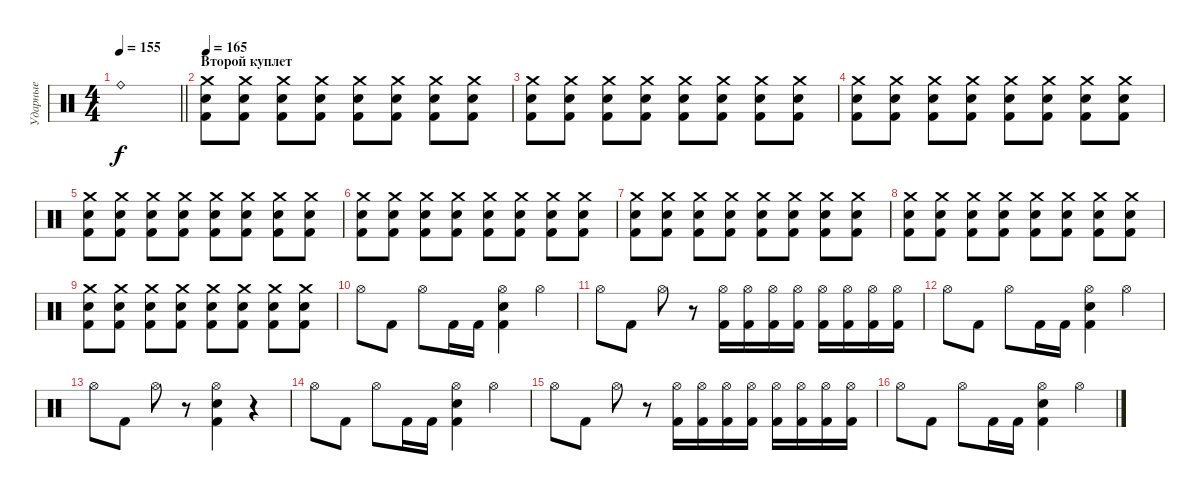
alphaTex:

\track ("Ударные" "Ударные") {instrument percussion}
\staff {score}
\articulation defaults
\ts (4 4)
\tempo 155
\clef neutral
\barLineRight lightlight
\ks c "Ride (bell)".1{dy f}
|
\section ("" "Второй куплет")
\tempo 165
("Crash medium (hit)" "Snare (hit) 2" "Kick (hit) 2").8 ("Crash medium (hit)" "Snare (hit) 2" "Kick (hit) 2").8 ("Crash medium (hit)" "Snare (hit) 2" "Kick (hit) 2").8 ("Crash medium (hit)" "Snare (hit) 2" "Kick (hit) 2").8 ("Crash medium (hit)" "Snare (hit) 2" "Kick (hit) 2").8 ("Crash medium (hit)" "Snare (hit) 2" "Kick (hit) 2").8 ("Crash medium (hit)" "Snare (hit) 2" "Kick (hit) 2").8 ("Crash medium (hit)" "Snare (hit) 2" "Kick (hit) 2").8 |
("Crash medium (hit)" "Snare (hit) 2" "Kick (hit) 2").8 ("Crash medium (hit)" "Snare (hit) 2" "Kick (hit) 2").8 ("Crash medium (hit)" "Snare (hit) 2" "Kick (hit) 2").8 ("Crash medium (hit)" "Snare (hit) 2" "Kick (hit) 2").8 ("Crash medium (hit)" "Snare (hit) 2" "Kick (hit) 2").8 ("Crash medium (hit)" "Snare (hit) 2" "Kick (hit) 2").8 ("Crash medium (hit)" "Snare (hit) 2" "Kick (hit) 2").8 ("Crash medium (hit)" "Snare (hit) 2" "Kick (hit) 2").8 |
("Crash medium (hit)" "Snare (hit) 2" "Kick (hit) 2").8 ("Crash medium (hit)" "Snare (hit) 2" "Kick (hit) 2").8 ("Crash medium (hit)" "Snare (hit) 2" "Kick (hit) 2").8 ("Crash medium (hit)" "Snare (hit) 2" "Kick (hit) 2").8 ("Crash medium (hit)" "Snare (hit) 2" "Kick (hit) 2").8 ("Crash medium (hit)" "Snare (hit) 2" "Kick (hit) 2").8 ("Crash medium (hit)" "Snare (hit) 2" "Kick (hit) 2").8 ("Crash medium (hit)" "Snare (hit) 2" "Kick (hit) 2").8 |
("Crash medium (hit)" "Snare (hit) 2" "Kick (hit) 2").8 ("Crash medium (hit)" "Snare (hit) 2" "Kick (hit) 2").8 ("Crash medium (hit)" "Snare (hit) 2" "Kick (hit) 2").8 ("Crash medium (hit)" "Snare (hit) 2" "Kick (hit) 2").8 ("Crash medium (hit)" "Snare (hit) 2" "Kick (hit) 2").8 ("Crash medium (hit)" "Snare (hit) 2" "Kick (hit) 2").8 ("Crash medium (hit)" "Snare (hit) 2" "Kick (hit) 2").8 ("Crash medium (hit)" "Snare (hit) 2" "Kick (hit) 2").8 |
("Crash medium (hit)" "Snare (hit) 2" "Kick (hit) 2").8 ("Crash medium (hit)" "Snare (hit) 2" "Kick (hit) 2").8 ("Crash medium (hit)" "Snare (hit) 2" "Kick (hit) 2").8 ("Crash medium (hit)" "Snare (hit) 2" "Kick (hit) 2").8 ("Crash medium (hit)" "Snare (hit) 2" "Kick (hit) 2").8 ("Crash medium (hit)" "Snare (hit) 2" "Kick (hit) 2").8 ("Crash medium (hit)" "Snare (hit) 2" "Kick (hit) 2").8 ("Crash medium (hit)" "Snare (hit) 2" "Kick (hit) 2").8 |
("Crash medium (hit)" "Snare (hit) 2" "Kick (hit) 2").8 ("Crash medium (hit)" "Snare (hit) 2" "Kick (hit) 2").8 ("Crash medium (hit)" "Snare (hit) 2" "Kick (hit) 2").8 ("Crash medium (hit)" "Snare (hit) 2" "Kick (hit) 2").8 ("Crash medium (hit)" "Snare (hit) 2" "Kick (hit) 2").8 ("Crash medium (hit)" "Snare (hit) 2" "Kick (hit) 2").8 ("Crash medium (hit)" "Snare (hit) 2" "Kick (hit) 2").8 ("Crash medium (hit)" "Snare (hit) 2" "Kick (hit) 2").8 |
("Crash medium (hit)" "Snare (hit) 2" "Kick (hit) 2").8 ("Crash medium (hit)" "Snare (hit) 2" "Kick (hit) 2").8 ("Crash medium (hit)" "Snare (hit) 2" "Kick (hit) 2").8 ("Crash medium (hit)" "Snare (hit) 2" "Kick (hit) 2").8 ("Crash medium (hit)" "Snare (hit) 2" "Kick (hit) 2").8 ("Crash medium (hit)" "Snare (hit) 2" "Kick (hit) 2").8 ("Crash medium (hit)" "Snare (hit) 2" "Kick (hit) 2").8 ("Crash medium (hit)" "Snare (hit) 2" "Kick (hit) 2").8 |
("Crash medium (hit)" "Snare (hit) 2" "Kick (hit) 2").8 ("Crash medium (hit)" "Snare (hit) 2" "Kick (hit) 2").8 ("Crash medium (hit)" "Snare (hit) 2" "Kick (hit) 2").8 ("Crash medium (hit)" "Snare (hit) 2" "Kick (hit) 2").8 ("Crash medium (hit)" "Snare (hit) 2" "Kick (hit) 2").8 ("Crash medium (hit)" "Snare (hit) 2" "Kick (hit) 2").8 ("Crash medium (hit)" "Snare (hit) 2" "Kick (hit) 2").8 ("Crash medium (hit)" "Snare (hit) 2" "Kick (hit) 2").8 |
"Hi-Hat (open)".8 "Kick (hit) 2".8 "Hi-Hat (open)".8 "Kick (hit) 2".16 "Kick (hit) 2".16 ("Snare (hit) 2" "Kick (hit) 2" "Hi-Hat (open)").4 "Hi-Hat (open)".4 |
"Hi-Hat (open)".8 "Kick (hit) 2".8 "Hi-Hat (open)".8 r.8 ("Kick (hit) 2" "Hi-Hat (open)").16 ("Kick (hit) 2" "Hi-Hat (open)").16 ("Kick (hit) 2" "Hi-Hat (open)").16 ("Kick (hit) 2" "Hi-Hat (open)").16 ("Kick (hit) 2" "Hi-Hat (open)").16 ("Kick (hit) 2" "Hi-Hat (open)").16 ("Kick (hit) 2" "Hi-Hat (open)").16 ("Kick (hit) 2" "Hi-Hat (open)").16 |
"Hi-Hat (open)".8 "Kick (hit) 2".8 "Hi-Hat (open)".8 "Kick (hit) 2".16 "Kick (hit) 2".16 ("Snare (hit) 2" "Kick (hit) 2" "Hi-Hat (open)").4 "Hi-Hat (open)".4 |
"Hi-Hat (open)".8 "Kick (hit) 2".8 "Hi-Hat (open)".8 r.8 ("Snare (hit) 2" "Kick (hit) 2" "Hi-Hat (open)").4 r.4 |
"Hi-Hat (open)".8 "Kick (hit) 2".8 "Hi-Hat (open)".8 "Kick (hit) 2".16 "Kick (hit) 2".16 ("Snare (hit) 2" "Kick (hit) 2" "Hi-Hat (open)").4 "Hi-Hat (open)".4 |
"Hi-Hat (open)".8 "Kick (hit) 2".8 "Hi-Hat (open)".8 r.8 ("Kick (hit) 2" "Hi-Hat (open)").16 ("Kick (hit) 2" "Hi-Hat (open)").16 ("Kick (hit) 2" "Hi-Hat (open)").16 ("Kick (hit) 2" "Hi-Hat (open)").16 ("Kick (hit) 2" "Hi-Hat (open)").16 ("Kick (hit) 2" "Hi-Hat (open)").16 ("Kick (hit) 2" "Hi-Hat (open)").16 ("Kick (hit) 2" "Hi-Hat (open)").16 |
"Hi-Hat (open)".8 "Kick (hit) 2".8 "Hi-Hat (open)".8 "Kick (hit) 2".16 "Kick (hit) 2".16 ("Snare (hit) 2" "Kick (hit) 2" "Hi-Hat (open)").4 "Hi-Hat (open)".4
